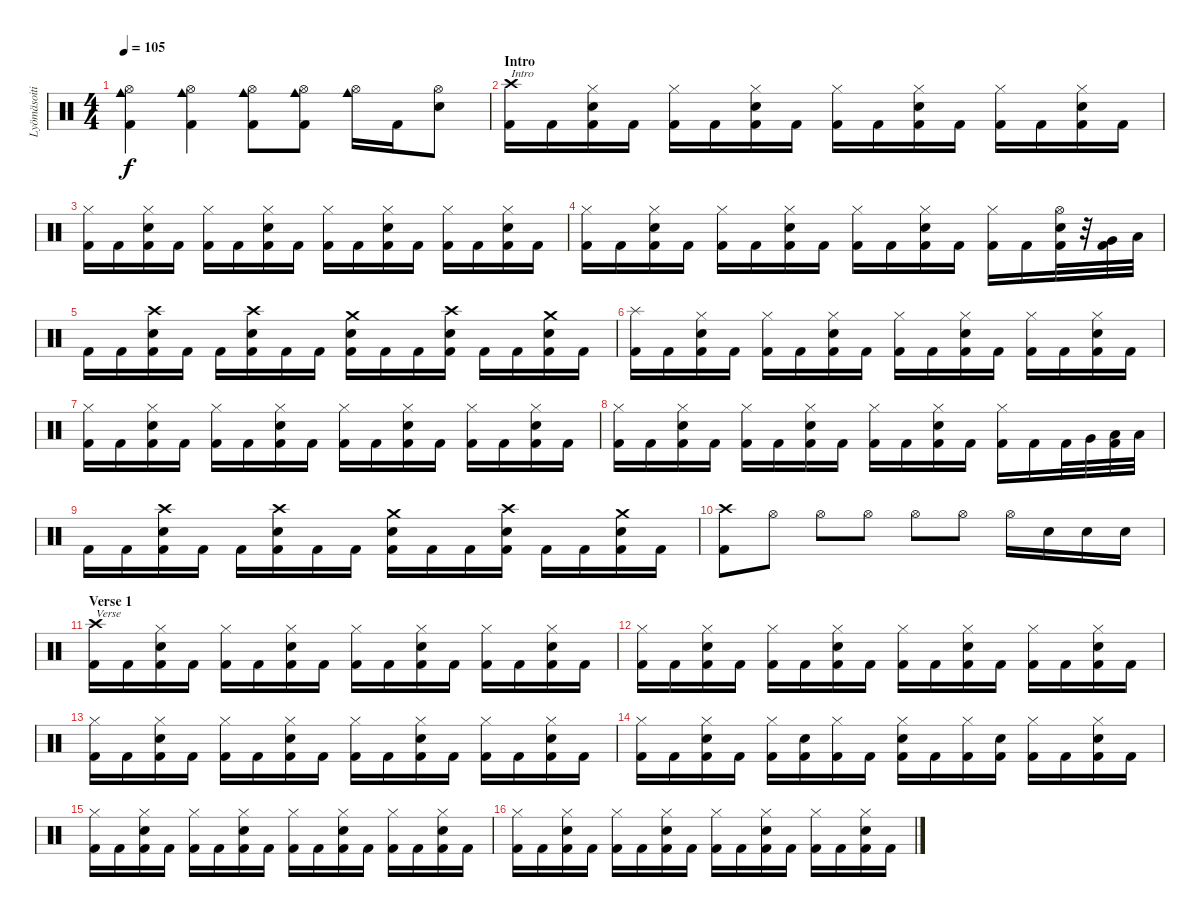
\track ("Lyömäsoitin" "Lyömäsoiti") {instrument percussion}
\staff {score}
\articulation defaults
\ts (4 4)
\tempo 105
\clef neutral
\ks c
("Hi-Hat (open)" "Cowbell medium (hit)" "Kick (hit) 2").4{dy f} ("Hi-Hat (open)" "Cowbell medium (hit)" "Kick (hit) 2").4 ("Hi-Hat (open)" "Cowbell medium (hit)" "Kick (hit) 2").8 ("Hi-Hat (open)" "Cowbell medium (hit)" "Kick (hit) 2").8 ("Hi-Hat (open)" "Cowbell medium (hit)").16 "Kick (hit) 2".16 ("Hi-Hat (open)" "Snare (hit) 2").8 |
\section ("" "Intro")
("Crash high (hit)" "Kick (hit) 2").16{txt "Intro"} "Kick (hit) 2".16 ("Hi-Hat (closed)" "Snare (hit) 2" "Kick (hit) 2").16 "Kick (hit) 2".16 ("Hi-Hat (closed)" "Kick (hit) 2").16 "Kick (hit) 2".16 ("Hi-Hat (closed)" "Snare (hit) 2" "Kick (hit) 2").16 "Kick (hit) 2".16 ("Hi-Hat (closed)" "Kick (hit) 2").16 "Kick (hit) 2".16 ("Hi-Hat (closed)" "Snare (hit) 2" "Kick (hit) 2").16 "Kick (hit) 2".16 ("Hi-Hat (closed)" "Kick (hit) 2").16 "Kick (hit) 2".16 ("Hi-Hat (closed)" "Snare (hit) 2" "Kick (hit) 2").16 "Kick (hit) 2".16 |
("Hi-Hat (closed)" "Kick (hit) 2").16 "Kick (hit) 2".16 ("Hi-Hat (closed)" "Snare (hit) 2" "Kick (hit) 2").16 "Kick (hit) 2".16 ("Hi-Hat (closed)" "Kick (hit) 2").16 "Kick (hit) 2".16 ("Hi-Hat (closed)" "Snare (hit) 2" "Kick (hit) 2").16 "Kick (hit) 2".16 ("Hi-Hat (closed)" "Kick (hit) 2").16 "Kick (hit) 2".16 ("Hi-Hat (closed)" "Snare (hit) 2" "Kick (hit) 2").16 "Kick (hit) 2".16 ("Hi-Hat (closed)" "Kick (hit) 2").16 "Kick (hit) 2".16 ("Hi-Hat (closed)" "Snare (hit) 2" "Kick (hit) 2").16 "Kick (hit) 2".16 |
("Hi-Hat (closed)" "Kick (hit) 2").16 "Kick (hit) 2".16 ("Hi-Hat (closed)" "Snare (hit) 2" "Kick (hit) 2").16 "Kick (hit) 2".16 ("Hi-Hat (closed)" "Kick (hit) 2").16 "Kick (hit) 2".16 ("Hi-Hat (closed)" "Snare (hit) 2" "Kick (hit) 2").16 "Kick (hit) 2".16 ("Hi-Hat (closed)" "Kick (hit) 2").16 "Kick (hit) 2".16 ("Hi-Hat (closed)" "Snare (hit) 2" "Kick (hit) 2").16 "Kick (hit) 2".16 ("Hi-Hat (closed)" "Kick (hit) 2").16 "Kick (hit) 2".16 ("Hi-Hat (open)" "Snare (hit) 2" "Kick (hit) 2").32 r.32 ("Very Low Tom (hit)" "Kick (hit) 2").32 "Low Floor Tom (hit)".32 |
"Kick (hit) 2".16 "Kick (hit) 2".16 ("Crash high (hit)" "Snare (hit) 2" "Kick (hit) 2").16 "Kick (hit) 2".16 "Kick (hit) 2".16 ("Crash high (hit)" "Snare (hit) 2" "Kick (hit) 2").16 "Kick (hit) 2".16 "Kick (hit) 2".16 ("Crash medium (hit)" "Snare (hit) 2" "Kick (hit) 2").16 "Kick (hit) 2".16 "Kick (hit) 2".16 ("Crash high (hit)" "Snare (hit) 2" "Kick (hit) 2").16 "Kick (hit) 2".16 "Kick (hit) 2".16 ("Crash medium (hit)" "Snare (hit) 2" "Kick (hit) 2").16 "Kick (hit) 2".16 |
("Splash (hit)" "Kick (hit) 2").16 "Kick (hit) 2".16 ("Hi-Hat (closed)" "Snare (hit) 2" "Kick (hit) 2").16 "Kick (hit) 2".16 ("Hi-Hat (closed)" "Kick (hit) 2").16 "Kick (hit) 2".16 ("Hi-Hat (closed)" "Snare (hit) 2" "Kick (hit) 2").16 "Kick (hit) 2".16 ("Hi-Hat (closed)" "Kick (hit) 2").16 "Kick (hit) 2".16 ("Hi-Hat (closed)" "Snare (hit) 2" "Kick (hit) 2").16 "Kick (hit) 2".16 ("Hi-Hat (closed)" "Kick (hit) 2").16 "Kick (hit) 2".16 ("Hi-Hat (closed)" "Snare (hit) 2" "Kick (hit) 2").16 "Kick (hit) 2".16 |
("Hi-Hat (closed)" "Kick (hit) 2").16 "Kick (hit) 2".16 ("Hi-Hat (closed)" "Snare (hit) 2" "Kick (hit) 2").16 "Kick (hit) 2".16 ("Hi-Hat (closed)" "Kick (hit) 2").16 "Kick (hit) 2".16 ("Hi-Hat (closed)" "Snare (hit) 2" "Kick (hit) 2").16 "Kick (hit) 2".16 ("Hi-Hat (closed)" "Kick (hit) 2").16 "Kick (hit) 2".16 ("Hi-Hat (closed)" "Snare (hit) 2" "Kick (hit) 2").16 "Kick (hit) 2".16 ("Hi-Hat (closed)" "Kick (hit) 2").16 "Kick (hit) 2".16 ("Hi-Hat (closed)" "Snare (hit) 2" "Kick (hit) 2").16 "Kick (hit) 2".16 |
("Hi-Hat (closed)" "Kick (hit) 2").16 "Kick (hit) 2".16 ("Hi-Hat (closed)" "Snare (hit) 2" "Kick (hit) 2").16 "Kick (hit) 2".16 ("Hi-Hat (closed)" "Kick (hit) 2").16 "Kick (hit) 2".16 ("Hi-Hat (closed)" "Snare (hit) 2" "Kick (hit) 2").16 "Kick (hit) 2".16 ("Hi-Hat (closed)" "Kick (hit) 2").16 "Kick (hit) 2".16 ("Hi-Hat (closed)" "Snare (hit) 2" "Kick (hit) 2").16 "Kick (hit) 2".16 ("Hi-Hat (closed)" "Kick (hit) 2").16 "Kick (hit) 2".16 "Kick (hit) 2".32 "Very Low Tom (hit)".32 ("Low Floor Tom (hit)" "Kick (hit) 2").32 "Low Floor Tom (hit)".32 |
"Kick (hit) 2".16 "Kick (hit) 2".16 ("Crash high (hit)" "Snare (hit) 2" "Kick (hit) 2").16 "Kick (hit) 2".16 "Kick (hit) 2".16 ("Crash high (hit)" "Snare (hit) 2" "Kick (hit) 2").16 "Kick (hit) 2".16 "Kick (hit) 2".16 ("Crash medium (hit)" "Snare (hit) 2" "Kick (hit) 2").16 "Kick (hit) 2".16 "Kick (hit) 2".16 ("Crash high (hit)" "Snare (hit) 2" "Kick (hit) 2").16 "Kick (hit) 2".16 "Kick (hit) 2".16 ("Crash medium (hit)" "Snare (hit) 2" "Kick (hit) 2").16 "Kick (hit) 2".16 |
("Crash high (hit)" "Kick (hit) 2").8 "Hi-Hat (open)".8 "Hi-Hat (open)".8 "Hi-Hat (open)".8 "Hi-Hat (open)".8 "Hi-Hat (open)".8 "Hi-Hat (open)".16 "Snare (hit) 2".16 "Snare (hit) 2".16 "Snare (hit) 2".16 |
\section ("" "Verse 1")
("Crash high (hit)" "Kick (hit) 2").16{txt "Verse"} "Kick (hit) 2".16 ("Hi-Hat (closed)" "Snare (hit) 2" "Kick (hit) 2").16 "Kick (hit) 2".16 ("Hi-Hat (closed)" "Kick (hit) 2").16 "Kick (hit) 2".16 ("Hi-Hat (closed)" "Snare (hit) 2" "Kick (hit) 2").16 "Kick (hit) 2".16 ("Hi-Hat (closed)" "Kick (hit) 2").16 "Kick (hit) 2".16 ("Hi-Hat (closed)" "Snare (hit) 2" "Kick (hit) 2").16 "Kick (hit) 2".16 ("Hi-Hat (closed)" "Kick (hit) 2").16 "Kick (hit) 2".16 ("Hi-Hat (closed)" "Snare (hit) 2" "Kick (hit) 2").16 "Kick (hit) 2".16 |
("Hi-Hat (closed)" "Kick (hit) 2").16 "Kick (hit) 2".16 ("Hi-Hat (closed)" "Snare (hit) 2" "Kick (hit) 2").16 "Kick (hit) 2".16 ("Hi-Hat (closed)" "Kick (hit) 2").16 "Kick (hit) 2".16 ("Hi-Hat (closed)" "Snare (hit) 2" "Kick (hit) 2").16 "Kick (hit) 2".16 ("Hi-Hat (closed)" "Kick (hit) 2").16 "Kick (hit) 2".16 ("Hi-Hat (closed)" "Snare (hit) 2" "Kick (hit) 2").16 "Kick (hit) 2".16 ("Hi-Hat (closed)" "Kick (hit) 2").16 "Kick (hit) 2".16 ("Hi-Hat (closed)" "Snare (hit) 2" "Kick (hit) 2").16 "Kick (hit) 2".16 |
("Hi-Hat (closed)" "Kick (hit) 2").16 "Kick (hit) 2".16 ("Hi-Hat (closed)" "Snare (hit) 2" "Kick (hit) 2").16 "Kick (hit) 2".16 ("Hi-Hat (closed)" "Kick (hit) 2").16 "Kick (hit) 2".16 ("Hi-Hat (closed)" "Snare (hit) 2" "Kick (hit) 2").16 "Kick (hit) 2".16 ("Hi-Hat (closed)" "Kick (hit) 2").16 "Kick (hit) 2".16 ("Hi-Hat (closed)" "Snare (hit) 2" "Kick (hit) 2").16 "Kick (hit) 2".16 ("Hi-Hat (closed)" "Kick (hit) 2").16 "Kick (hit) 2".16 ("Hi-Hat (closed)" "Snare (hit) 2" "Kick (hit) 2").16 "Kick (hit) 2".16 |
("Hi-Hat (closed)" "Kick (hit) 2").16 "Kick (hit) 2".16 ("Hi-Hat (closed)" "Snare (hit) 2" "Kick (hit) 2").16 "Kick (hit) 2".16 ("Hi-Hat (closed)" "Kick (hit) 2").16 ("Snare (hit) 2" "Kick (hit) 2").16 ("Hi-Hat (closed)" "Kick (hit) 2").16 "Kick (hit) 2".16 ("Hi-Hat (closed)" "Snare (hit) 2" "Kick (hit) 2").16 "Kick (hit) 2".16 ("Hi-Hat (closed)" "Kick (hit) 2").16 ("Snare (hit) 2" "Kick (hit) 2").16 ("Hi-Hat (closed)" "Kick (hit) 2").16 "Kick (hit) 2".16 ("Hi-Hat (closed)" "Snare (hit) 2" "Kick (hit) 2").16 "Kick (hit) 2".16 |
("Hi-Hat (closed)" "Kick (hit) 2").16 "Kick (hit) 2".16 ("Hi-Hat (closed)" "Snare (hit) 2" "Kick (hit) 2").16 "Kick (hit) 2".16 ("Hi-Hat (closed)" "Kick (hit) 2").16 "Kick (hit) 2".16 ("Hi-Hat (closed)" "Snare (hit) 2" "Kick (hit) 2").16 "Kick (hit) 2".16 ("Hi-Hat (closed)" "Kick (hit) 2").16 "Kick (hit) 2".16 ("Hi-Hat (closed)" "Snare (hit) 2" "Kick (hit) 2").16 "Kick (hit) 2".16 ("Hi-Hat (closed)" "Kick (hit) 2").16 "Kick (hit) 2".16 ("Hi-Hat (closed)" "Snare (hit) 2" "Kick (hit) 2").16 "Kick (hit) 2".16 |
("Hi-Hat (closed)" "Kick (hit) 2").16 "Kick (hit) 2".16 ("Hi-Hat (closed)" "Snare (hit) 2" "Kick (hit) 2").16 "Kick (hit) 2".16 ("Hi-Hat (closed)" "Kick (hit) 2").16 "Kick (hit) 2".16 ("Hi-Hat (closed)" "Snare (hit) 2" "Kick (hit) 2").16 "Kick (hit) 2".16 ("Hi-Hat (closed)" "Kick (hit) 2").16 "Kick (hit) 2".16 ("Hi-Hat (closed)" "Snare (hit) 2" "Kick (hit) 2").16 "Kick (hit) 2".16 ("Hi-Hat (closed)" "Kick (hit) 2").16 "Kick (hit) 2".16 ("Hi-Hat (closed)" "Snare (hit) 2" "Kick (hit) 2").16 "Kick (hit) 2".16
